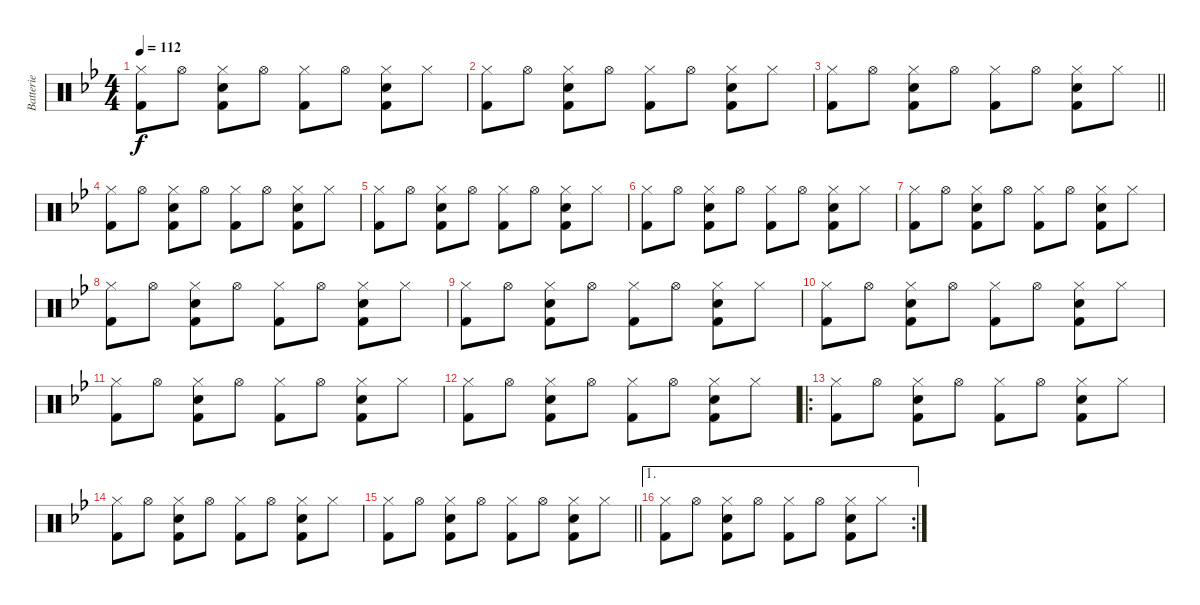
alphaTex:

\track ("Batterie" "Batterie") {instrument percussion}
\staff {score}
\articulation defaults
\ts (4 4)
\tempo 112
\clef neutral
\ks bb
("Hi-Hat (closed)" "Kick (hit) 2").8{dy f} "Hi-Hat (open)".8 ("Hi-Hat (closed)" "Snare (hit) 2" "Kick (hit) 2").8 "Hi-Hat (open)".8 ("Hi-Hat (closed)" "Kick (hit) 2").8 "Hi-Hat (open)".8 ("Hi-Hat (closed)" "Snare (hit) 2" "Kick (hit) 2").8 "Hi-Hat (closed)".8 |
("Hi-Hat (closed)" "Kick (hit) 2").8 "Hi-Hat (open)".8 ("Hi-Hat (closed)" "Snare (hit) 2" "Kick (hit) 2").8 "Hi-Hat (open)".8 ("Hi-Hat (closed)" "Kick (hit) 2").8 "Hi-Hat (open)".8 ("Hi-Hat (closed)" "Snare (hit) 2" "Kick (hit) 2").8 "Hi-Hat (closed)".8 |
\barLineRight lightlight
("Hi-Hat (closed)" "Kick (hit) 2").8 "Hi-Hat (open)".8 ("Hi-Hat (closed)" "Snare (hit) 2" "Kick (hit) 2").8 "Hi-Hat (open)".8 ("Hi-Hat (closed)" "Kick (hit) 2").8 "Hi-Hat (open)".8 ("Hi-Hat (closed)" "Snare (hit) 2" "Kick (hit) 2").8 "Hi-Hat (closed)".8 |
("Hi-Hat (closed)" "Kick (hit) 2").8 "Hi-Hat (open)".8 ("Hi-Hat (closed)" "Snare (hit) 2" "Kick (hit) 2").8 "Hi-Hat (open)".8 ("Hi-Hat (closed)" "Kick (hit) 2").8 "Hi-Hat (open)".8 ("Hi-Hat (closed)" "Snare (hit) 2" "Kick (hit) 2").8 "Hi-Hat (closed)".8 |
("Hi-Hat (closed)" "Kick (hit) 2").8 "Hi-Hat (open)".8 ("Hi-Hat (closed)" "Snare (hit) 2" "Kick (hit) 2").8 "Hi-Hat (open)".8 ("Hi-Hat (closed)" "Kick (hit) 2").8 "Hi-Hat (open)".8 ("Hi-Hat (closed)" "Snare (hit) 2" "Kick (hit) 2").8 "Hi-Hat (closed)".8 |
("Hi-Hat (closed)" "Kick (hit) 2").8 "Hi-Hat (open)".8 ("Hi-Hat (closed)" "Snare (hit) 2" "Kick (hit) 2").8 "Hi-Hat (open)".8 ("Hi-Hat (closed)" "Kick (hit) 2").8 "Hi-Hat (open)".8 ("Hi-Hat (closed)" "Snare (hit) 2" "Kick (hit) 2").8 "Hi-Hat (closed)".8 |
("Hi-Hat (closed)" "Kick (hit) 2").8 "Hi-Hat (open)".8 ("Hi-Hat (closed)" "Snare (hit) 2" "Kick (hit) 2").8 "Hi-Hat (open)".8 ("Hi-Hat (closed)" "Kick (hit) 2").8 "Hi-Hat (open)".8 ("Hi-Hat (closed)" "Snare (hit) 2" "Kick (hit) 2").8 "Hi-Hat (closed)".8 |
("Hi-Hat (closed)" "Kick (hit) 2").8 "Hi-Hat (open)".8 ("Hi-Hat (closed)" "Snare (hit) 2" "Kick (hit) 2").8 "Hi-Hat (open)".8 ("Hi-Hat (closed)" "Kick (hit) 2").8 "Hi-Hat (open)".8 ("Hi-Hat (closed)" "Snare (hit) 2" "Kick (hit) 2").8 "Hi-Hat (closed)".8 |
("Hi-Hat (closed)" "Kick (hit) 2").8 "Hi-Hat (open)".8 ("Hi-Hat (closed)" "Snare (hit) 2" "Kick (hit) 2").8 "Hi-Hat (open)".8 ("Hi-Hat (closed)" "Kick (hit) 2").8 "Hi-Hat (open)".8 ("Hi-Hat (closed)" "Snare (hit) 2" "Kick (hit) 2").8 "Hi-Hat (closed)".8 |
("Hi-Hat (closed)" "Kick (hit) 2").8 "Hi-Hat (open)".8 ("Hi-Hat (closed)" "Snare (hit) 2" "Kick (hit) 2").8 "Hi-Hat (open)".8 ("Hi-Hat (closed)" "Kick (hit) 2").8 "Hi-Hat (open)".8 ("Hi-Hat (closed)" "Snare (hit) 2" "Kick (hit) 2").8 "Hi-Hat (closed)".8 |
("Hi-Hat (closed)" "Kick (hit) 2").8 "Hi-Hat (open)".8 ("Hi-Hat (closed)" "Snare (hit) 2" "Kick (hit) 2").8 "Hi-Hat (open)".8 ("Hi-Hat (closed)" "Kick (hit) 2").8 "Hi-Hat (open)".8 ("Hi-Hat (closed)" "Snare (hit) 2" "Kick (hit) 2").8 "Hi-Hat (closed)".8 |
("Hi-Hat (closed)" "Kick (hit) 2").8 "Hi-Hat (open)".8 ("Hi-Hat (closed)" "Snare (hit) 2" "Kick (hit) 2").8 "Hi-Hat (open)".8 ("Hi-Hat (closed)" "Kick (hit) 2").8 "Hi-Hat (open)".8 ("Hi-Hat (closed)" "Snare (hit) 2" "Kick (hit) 2").8 "Hi-Hat (closed)".8 |
\ro
("Hi-Hat (closed)" "Kick (hit) 2").8 "Hi-Hat (open)".8 ("Hi-Hat (closed)" "Snare (hit) 2" "Kick (hit) 2").8 "Hi-Hat (open)".8 ("Hi-Hat (closed)" "Kick (hit) 2").8 "Hi-Hat (open)".8 ("Hi-Hat (closed)" "Snare (hit) 2" "Kick (hit) 2").8 "Hi-Hat (closed)".8 |
("Hi-Hat (closed)" "Kick (hit) 2").8 "Hi-Hat (open)".8 ("Hi-Hat (closed)" "Snare (hit) 2" "Kick (hit) 2").8 "Hi-Hat (open)".8 ("Hi-Hat (closed)" "Kick (hit) 2").8 "Hi-Hat (open)".8 ("Hi-Hat (closed)" "Snare (hit) 2" "Kick (hit) 2").8 "Hi-Hat (closed)".8 |
\barLineRight lightlight
("Hi-Hat (closed)" "Kick (hit) 2").8 "Hi-Hat (open)".8 ("Hi-Hat (closed)" "Snare (hit) 2" "Kick (hit) 2").8 "Hi-Hat (open)".8 ("Hi-Hat (closed)" "Kick (hit) 2").8 "Hi-Hat (open)".8 ("Hi-Hat (closed)" "Snare (hit) 2" "Kick (hit) 2").8 "Hi-Hat (closed)".8 |
\ae 1
\rc 2
("Hi-Hat (closed)" "Kick (hit) 2").8 "Hi-Hat (open)".8 ("Hi-Hat (closed)" "Snare (hit) 2" "Kick (hit) 2").8 "Hi-Hat (open)".8 ("Hi-Hat (closed)" "Kick (hit) 2").8 "Hi-Hat (open)".8 ("Hi-Hat (closed)" "Snare (hit) 2" "Kick (hit) 2").8 "Hi-Hat (closed)".8
